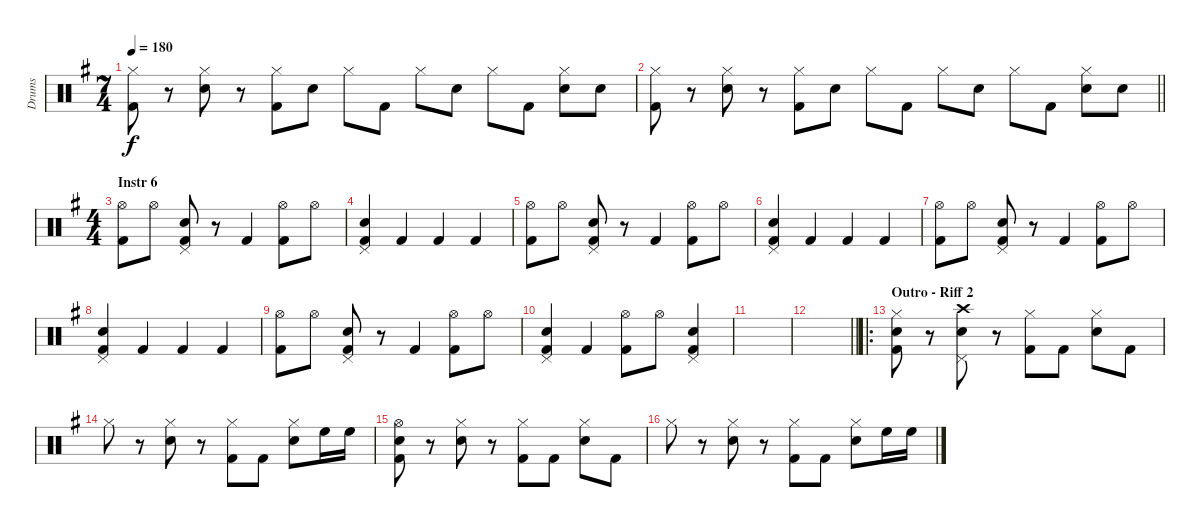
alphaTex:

\track ("Drums" "Drums") {instrument percussion bank 255}
\staff {score}
\articulation defaults
\ts (7 4)
\tempo 180
\clef neutral
\ks g
("Hi-Hat (closed)" "Kick (hit) 2").8{dy f} r.8 ("Hi-Hat (closed)" "Snare (hit) 2").8 r.8 ("Hi-Hat (closed)" "Kick (hit) 2").8 "Snare (hit) 2".8 "Hi-Hat (closed)".8 "Kick (hit) 2".8 "Hi-Hat (closed)".8 "Snare (hit) 2".8 "Hi-Hat (closed)".8 "Kick (hit) 2".8 ("Hi-Hat (closed)" "Snare (hit) 2").8 "Snare (hit) 2".8 |
\barLineRight lightlight
("Hi-Hat (closed)" "Kick (hit) 2").8 r.8 ("Hi-Hat (closed)" "Snare (hit) 2").8 r.8 ("Hi-Hat (closed)" "Kick (hit) 2").8 "Snare (hit) 2".8 "Hi-Hat (closed)".8 "Kick (hit) 2".8 "Hi-Hat (closed)".8 "Snare (hit) 2".8 "Hi-Hat (closed)".8 "Kick (hit) 2".8 ("Hi-Hat (closed)" "Snare (hit) 2").8 "Snare (hit) 2".8 |
\ts (4 4)
\section ("" "Instr 6")
("Hi-Hat (open)" "Kick (hit) 2").8 "Hi-Hat (open)".8 ("Pedal Hi-Hat (hit)" "Snare (hit) 2" "Kick (hit) 2").8 r.8 "Kick (hit) 2".4 ("Hi-Hat (open)" "Kick (hit) 2").8 "Hi-Hat (open)".8 |
("Pedal Hi-Hat (hit)" "Snare (hit) 2" "Kick (hit) 2").4 "Kick (hit) 2".4 "Kick (hit) 2".4 "Kick (hit) 2".4 |
("Hi-Hat (open)" "Kick (hit) 2").8 "Hi-Hat (open)".8 ("Pedal Hi-Hat (hit)" "Snare (hit) 2" "Kick (hit) 2").8 r.8 "Kick (hit) 2".4 ("Hi-Hat (open)" "Kick (hit) 2").8 "Hi-Hat (open)".8 |
("Pedal Hi-Hat (hit)" "Snare (hit) 2" "Kick (hit) 2").4 "Kick (hit) 2".4 "Kick (hit) 2".4 "Kick (hit) 2".4 |
("Hi-Hat (open)" "Kick (hit) 2").8 "Hi-Hat (open)".8 ("Pedal Hi-Hat (hit)" "Snare (hit) 2" "Kick (hit) 2").8 r.8 "Kick (hit) 2".4 ("Hi-Hat (open)" "Kick (hit) 2").8 "Hi-Hat (open)".8 |
("Pedal Hi-Hat (hit)" "Snare (hit) 2" "Kick (hit) 2").4 "Kick (hit) 2".4 "Kick (hit) 2".4 "Kick (hit) 2".4 |
("Hi-Hat (open)" "Kick (hit) 2").8 "Hi-Hat (open)".8 ("Pedal Hi-Hat (hit)" "Snare (hit) 2" "Kick (hit) 2").8 r.8 "Kick (hit) 2".4 ("Hi-Hat (open)" "Kick (hit) 2").8 "Hi-Hat (open)".8 |
("Pedal Hi-Hat (hit)" "Snare (hit) 2" "Kick (hit) 2").4 "Kick (hit) 2".4 ("Hi-Hat (open)" "Kick (hit) 2").8 "Hi-Hat (open)".8 ("Pedal Hi-Hat (hit)" "Snare (hit) 2" "Kick (hit) 2").4 |
|
\barLineRight lightlight
|
\ro
\section ("" "Outro - Riff 2")
("Hi-Hat (closed)" "Snare (hit) 2" "Kick (hit) 2").8 r.8 ("Crash high (hit)" "Pedal Hi-Hat (hit)" "Snare (hit) 2").8 r.8 ("Hi-Hat (closed)" "Kick (hit) 2").8 "Kick (hit) 2".8 ("Hi-Hat (closed)" "Snare (hit) 2").8 "Kick (hit) 2".8 |
"Hi-Hat (closed)".8 r.8 ("Hi-Hat (closed)" "Snare (hit) 2").8 r.8 ("Hi-Hat (closed)" "Kick (hit) 2").8 "Kick (hit) 2".8 ("Hi-Hat (closed)" "Snare (hit) 2").8 "High Floor Tom (hit)".16 "High Floor Tom (hit)".16 |
("Hi-Hat (open)" "Snare (hit) 2" "Kick (hit) 2").8 r.8 ("Hi-Hat (closed)" "Snare (hit) 2").8 r.8 ("Hi-Hat (closed)" "Kick (hit) 2").8 "Kick (hit) 2".8 ("Hi-Hat (closed)" "Snare (hit) 2").8 "Kick (hit) 2".8 |
"Hi-Hat (closed)".8 r.8 ("Hi-Hat (closed)" "Snare (hit) 2").8 r.8 ("Hi-Hat (closed)" "Kick (hit) 2").8 "Kick (hit) 2".8 ("Hi-Hat (closed)" "Snare (hit) 2").8 "High Floor Tom (hit)".16 "High Floor Tom (hit)".16
